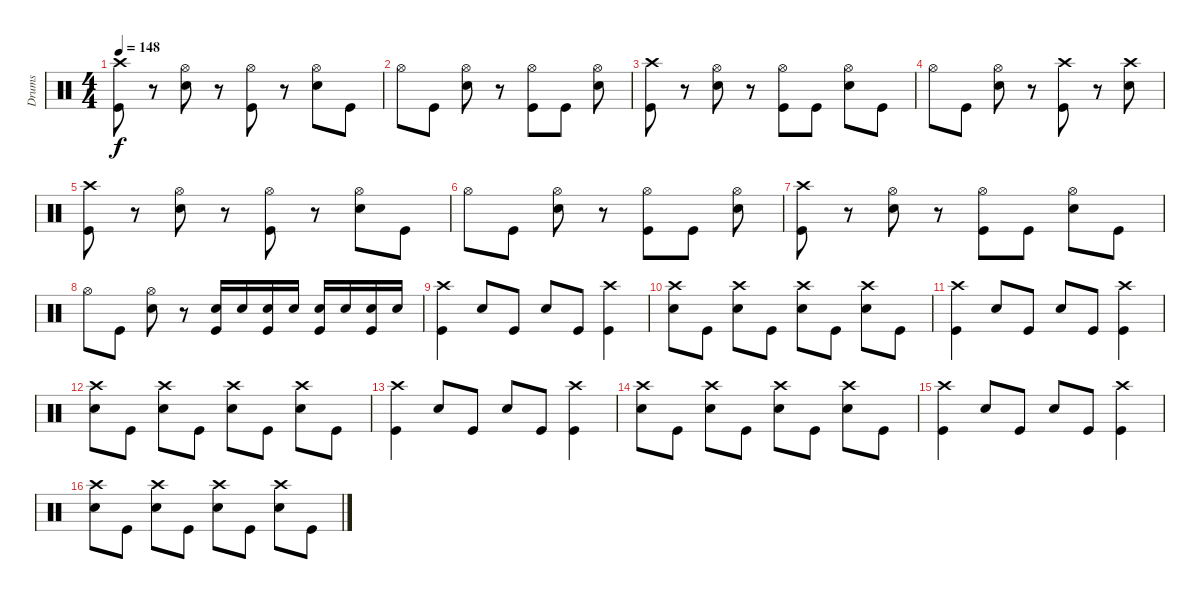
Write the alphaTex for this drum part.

\track ("Drums" "Drums") {instrument percussion}
\staff {score}
\articulation defaults
\ts (4 4)
\tempo 148
\clef neutral
\ks c
("Crash high (hit)" "Kick (hit)").8{dy f} r.8 ("Hi-Hat (open)" "Electric Snare (hit)").8 r.8 ("Hi-Hat (open)" "Kick (hit)").8 r.8 ("Hi-Hat (open)" "Electric Snare (hit)").8 "Kick (hit)".8 |
"Hi-Hat (open)".8 "Kick (hit)".8 ("Hi-Hat (open)" "Electric Snare (hit)").8 r.8 ("Hi-Hat (open)" "Kick (hit)").8 "Kick (hit)".8 ("Hi-Hat (open)" "Electric Snare (hit)").8 |
("Crash high (hit)" "Kick (hit)").8 r.8 ("Hi-Hat (open)" "Electric Snare (hit)").8 r.8 ("Hi-Hat (open)" "Kick (hit)").8 "Kick (hit)".8 ("Hi-Hat (open)" "Electric Snare (hit)").8 "Kick (hit)".8 |
"Hi-Hat (open)".8 "Kick (hit)".8 ("Hi-Hat (open)" "Electric Snare (hit)").8 r.8 ("Crash high (hit)" "Kick (hit)").8 r.8 ("Crash high (hit)" "Electric Snare (hit)").8 |
("Crash high (hit)" "Kick (hit)").8 r.8 ("Hi-Hat (open)" "Electric Snare (hit)").8 r.8 ("Hi-Hat (open)" "Kick (hit)").8 r.8 ("Hi-Hat (open)" "Electric Snare (hit)").8 "Kick (hit)".8 |
"Hi-Hat (open)".8 "Kick (hit)".8 ("Hi-Hat (open)" "Electric Snare (hit)").8 r.8 ("Hi-Hat (open)" "Kick (hit)").8 "Kick (hit)".8 ("Hi-Hat (open)" "Electric Snare (hit)").8 |
("Crash high (hit)" "Kick (hit)").8 r.8 ("Hi-Hat (open)" "Electric Snare (hit)").8 r.8 ("Hi-Hat (open)" "Kick (hit)").8 "Kick (hit)".8 ("Hi-Hat (open)" "Electric Snare (hit)").8 "Kick (hit)".8 |
"Hi-Hat (open)".8 "Kick (hit)".8 ("Hi-Hat (open)" "Electric Snare (hit)").8 r.8 ("Electric Snare (hit)" "Kick (hit)").16 "Electric Snare (hit)".16 ("Electric Snare (hit)" "Kick (hit)").16 "Electric Snare (hit)".16 ("Electric Snare (hit)" "Kick (hit)").16 "Electric Snare (hit)".16 ("Electric Snare (hit)" "Kick (hit)").16 "Electric Snare (hit)".16 |
("Crash high (hit)" "Kick (hit)").4 "Electric Snare (hit)".8 "Kick (hit)".8 "Electric Snare (hit)".8 "Kick (hit)".8 ("Crash high (hit)" "Kick (hit)").4 |
("Crash high (hit)" "Electric Snare (hit)").8 "Kick (hit)".8 ("Crash high (hit)" "Electric Snare (hit)").8 "Kick (hit)".8 ("Crash high (hit)" "Electric Snare (hit)").8 "Kick (hit)".8 ("Crash high (hit)" "Electric Snare (hit)").8 "Kick (hit)".8 |
("Crash high (hit)" "Kick (hit)").4 "Electric Snare (hit)".8 "Kick (hit)".8 "Electric Snare (hit)".8 "Kick (hit)".8 ("Crash high (hit)" "Kick (hit)").4 |
("Crash high (hit)" "Electric Snare (hit)").8 "Kick (hit)".8 ("Crash high (hit)" "Electric Snare (hit)").8 "Kick (hit)".8 ("Crash high (hit)" "Electric Snare (hit)").8 "Kick (hit)".8 ("Crash high (hit)" "Electric Snare (hit)").8 "Kick (hit)".8 |
("Crash high (hit)" "Kick (hit)").4 "Electric Snare (hit)".8 "Kick (hit)".8 "Electric Snare (hit)".8 "Kick (hit)".8 ("Crash high (hit)" "Kick (hit)").4 |
("Crash high (hit)" "Electric Snare (hit)").8 "Kick (hit)".8 ("Crash high (hit)" "Electric Snare (hit)").8 "Kick (hit)".8 ("Crash high (hit)" "Electric Snare (hit)").8 "Kick (hit)".8 ("Crash high (hit)" "Electric Snare (hit)").8 "Kick (hit)".8 |
("Crash high (hit)" "Kick (hit)").4 "Electric Snare (hit)".8 "Kick (hit)".8 "Electric Snare (hit)".8 "Kick (hit)".8 ("Crash high (hit)" "Kick (hit)").4 |
("Crash high (hit)" "Electric Snare (hit)").8 "Kick (hit)".8 ("Crash high (hit)" "Electric Snare (hit)").8 "Kick (hit)".8 ("Crash high (hit)" "Electric Snare (hit)").8 "Kick (hit)".8 ("Crash high (hit)" "Electric Snare (hit)").8 "Kick (hit)".8
